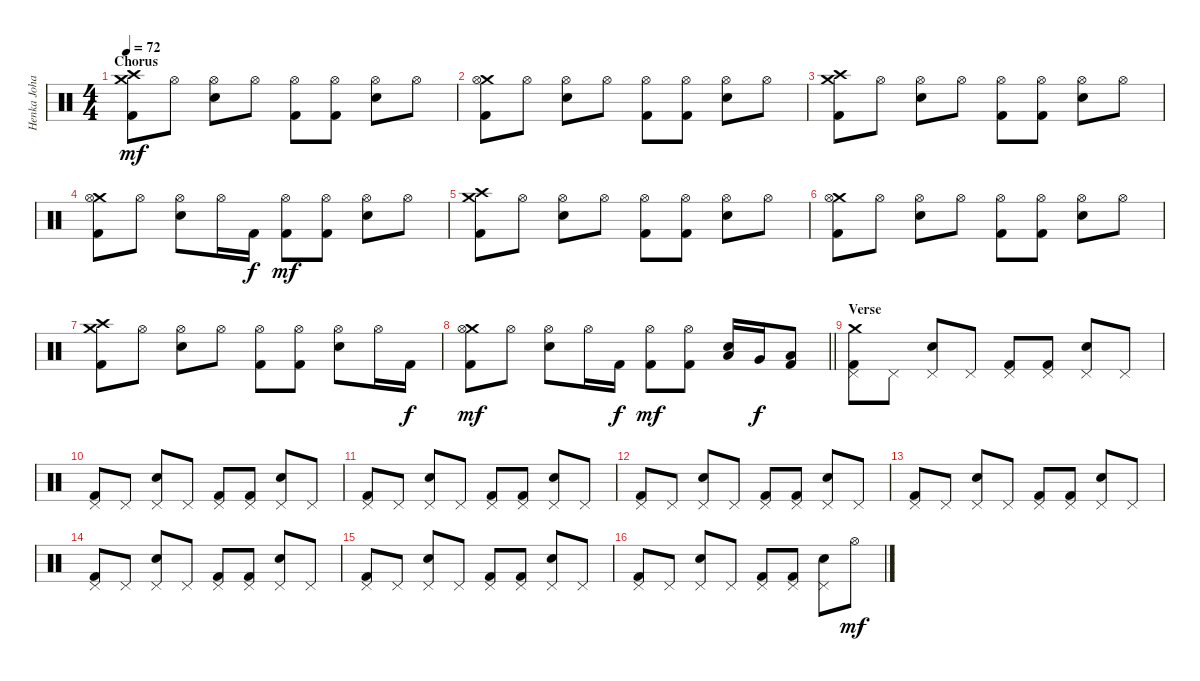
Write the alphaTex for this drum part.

\track ("Henka Johansson" "Henka Joha") {instrument percussion}
\staff {score}
\articulation defaults
\ts (4 4)
\section ("" "Chorus")
\tempo 72
\clef neutral
\ks c
("Crash medium (hit)" "Crash high (hit)" "Kick (hit) 2").8{dy mf} "Hi-Hat (open)".8 ("Hi-Hat (open)" "Electric Snare (hit)").8 "Hi-Hat (open)".8 ("Hi-Hat (open)" "Kick (hit) 2").8 ("Hi-Hat (open)" "Kick (hit) 2").8 ("Hi-Hat (open)" "Electric Snare (hit)").8 "Hi-Hat (open)".8 |
("Crash medium (hit)" "Hi-Hat (open)" "Kick (hit) 2").8 "Hi-Hat (open)".8 ("Hi-Hat (open)" "Electric Snare (hit)").8 "Hi-Hat (open)".8 ("Hi-Hat (open)" "Kick (hit) 2").8 ("Hi-Hat (open)" "Kick (hit) 2").8 ("Hi-Hat (open)" "Electric Snare (hit)").8 "Hi-Hat (open)".8 |
("Crash medium (hit)" "Crash high (hit)" "Kick (hit) 2").8 "Hi-Hat (open)".8 ("Hi-Hat (open)" "Electric Snare (hit)").8 "Hi-Hat (open)".8 ("Hi-Hat (open)" "Kick (hit) 2").8 ("Hi-Hat (open)" "Kick (hit) 2").8 ("Hi-Hat (open)" "Electric Snare (hit)").8 "Hi-Hat (open)".8 |
("Crash medium (hit)" "Hi-Hat (open)" "Kick (hit) 2").8 "Hi-Hat (open)".8 ("Hi-Hat (open)" "Electric Snare (hit)").8 "Hi-Hat (open)".16 "Kick (hit) 2".16{dy f} ("Hi-Hat (open)" "Kick (hit) 2").8{dy mf} ("Hi-Hat (open)" "Kick (hit) 2").8 ("Hi-Hat (open)" "Electric Snare (hit)").8 "Hi-Hat (open)".8 |
("Crash medium (hit)" "Crash high (hit)" "Kick (hit) 2").8 "Hi-Hat (open)".8 ("Hi-Hat (open)" "Electric Snare (hit)").8 "Hi-Hat (open)".8 ("Hi-Hat (open)" "Kick (hit) 2").8 ("Hi-Hat (open)" "Kick (hit) 2").8 ("Hi-Hat (open)" "Electric Snare (hit)").8 "Hi-Hat (open)".8 |
("Crash medium (hit)" "Hi-Hat (open)" "Kick (hit) 2").8 "Hi-Hat (open)".8 ("Hi-Hat (open)" "Electric Snare (hit)").8 "Hi-Hat (open)".8 ("Hi-Hat (open)" "Kick (hit) 2").8 ("Hi-Hat (open)" "Kick (hit) 2").8 ("Hi-Hat (open)" "Electric Snare (hit)").8 "Hi-Hat (open)".8 |
("Crash medium (hit)" "Crash high (hit)" "Kick (hit) 2").8 "Hi-Hat (open)".8 ("Hi-Hat (open)" "Electric Snare (hit)").8 "Hi-Hat (open)".8 ("Hi-Hat (open)" "Kick (hit) 2").8 ("Hi-Hat (open)" "Kick (hit) 2").8 ("Hi-Hat (open)" "Electric Snare (hit)").8 "Hi-Hat (open)".16 "Kick (hit) 2".16{dy f} |
\barLineRight lightlight
("Crash medium (hit)" "Hi-Hat (open)" "Kick (hit) 2").8{dy mf} "Hi-Hat (open)".8 ("Hi-Hat (open)" "Electric Snare (hit)").8 "Hi-Hat (open)".16 "Kick (hit) 2".16{dy f} ("Hi-Hat (open)" "Kick (hit) 2").8{dy mf} ("Hi-Hat (open)" "Kick (hit) 2").8 ("Low Floor Tom (hit)" "Electric Snare (hit)").16 "Very Low Tom (hit)".16{dy f} ("Low Floor Tom (hit)" "Kick (hit) 2").8 |
\section ("" "Verse")
("Crash medium (hit)" "Pedal Hi-Hat (hit)" "Kick (hit) 2").8 "Pedal Hi-Hat (hit)".8 ("Pedal Hi-Hat (hit)" "Electric Snare (hit)").8 "Pedal Hi-Hat (hit)".8 ("Pedal Hi-Hat (hit)" "Kick (hit) 2").8 ("Pedal Hi-Hat (hit)" "Kick (hit) 2").8 ("Pedal Hi-Hat (hit)" "Electric Snare (hit)").8 "Pedal Hi-Hat (hit)".8 |
("Pedal Hi-Hat (hit)" "Kick (hit) 2").8 "Pedal Hi-Hat (hit)".8 ("Pedal Hi-Hat (hit)" "Electric Snare (hit)").8 "Pedal Hi-Hat (hit)".8 ("Pedal Hi-Hat (hit)" "Kick (hit) 2").8 ("Pedal Hi-Hat (hit)" "Kick (hit) 2").8 ("Pedal Hi-Hat (hit)" "Electric Snare (hit)").8 "Pedal Hi-Hat (hit)".8 |
("Pedal Hi-Hat (hit)" "Kick (hit) 2").8 "Pedal Hi-Hat (hit)".8 ("Pedal Hi-Hat (hit)" "Electric Snare (hit)").8 "Pedal Hi-Hat (hit)".8 ("Pedal Hi-Hat (hit)" "Kick (hit) 2").8 ("Pedal Hi-Hat (hit)" "Kick (hit) 2").8 ("Pedal Hi-Hat (hit)" "Electric Snare (hit)").8 "Pedal Hi-Hat (hit)".8 |
("Pedal Hi-Hat (hit)" "Kick (hit) 2").8 "Pedal Hi-Hat (hit)".8 ("Pedal Hi-Hat (hit)" "Electric Snare (hit)").8 "Pedal Hi-Hat (hit)".8 ("Pedal Hi-Hat (hit)" "Kick (hit) 2").8 ("Pedal Hi-Hat (hit)" "Kick (hit) 2").8 ("Pedal Hi-Hat (hit)" "Electric Snare (hit)").8 "Pedal Hi-Hat (hit)".8 |
("Pedal Hi-Hat (hit)" "Kick (hit) 2").8 "Pedal Hi-Hat (hit)".8 ("Pedal Hi-Hat (hit)" "Electric Snare (hit)").8 "Pedal Hi-Hat (hit)".8 ("Pedal Hi-Hat (hit)" "Kick (hit) 2").8 ("Pedal Hi-Hat (hit)" "Kick (hit) 2").8 ("Pedal Hi-Hat (hit)" "Electric Snare (hit)").8 "Pedal Hi-Hat (hit)".8 |
("Pedal Hi-Hat (hit)" "Kick (hit) 2").8 "Pedal Hi-Hat (hit)".8 ("Pedal Hi-Hat (hit)" "Electric Snare (hit)").8 "Pedal Hi-Hat (hit)".8 ("Pedal Hi-Hat (hit)" "Kick (hit) 2").8 ("Pedal Hi-Hat (hit)" "Kick (hit) 2").8 ("Pedal Hi-Hat (hit)" "Electric Snare (hit)").8 "Pedal Hi-Hat (hit)".8 |
("Pedal Hi-Hat (hit)" "Kick (hit) 2").8 "Pedal Hi-Hat (hit)".8 ("Pedal Hi-Hat (hit)" "Electric Snare (hit)").8 "Pedal Hi-Hat (hit)".8 ("Pedal Hi-Hat (hit)" "Kick (hit) 2").8 ("Pedal Hi-Hat (hit)" "Kick (hit) 2").8 ("Pedal Hi-Hat (hit)" "Electric Snare (hit)").8 "Pedal Hi-Hat (hit)".8 |
("Pedal Hi-Hat (hit)" "Kick (hit) 2").8 "Pedal Hi-Hat (hit)".8 ("Pedal Hi-Hat (hit)" "Electric Snare (hit)").8 "Pedal Hi-Hat (hit)".8 ("Pedal Hi-Hat (hit)" "Kick (hit) 2").8 ("Pedal Hi-Hat (hit)" "Kick (hit) 2").8 ("Pedal Hi-Hat (hit)" "Electric Snare (hit)").8 "Hi-Hat (open)".8{dy mf}
